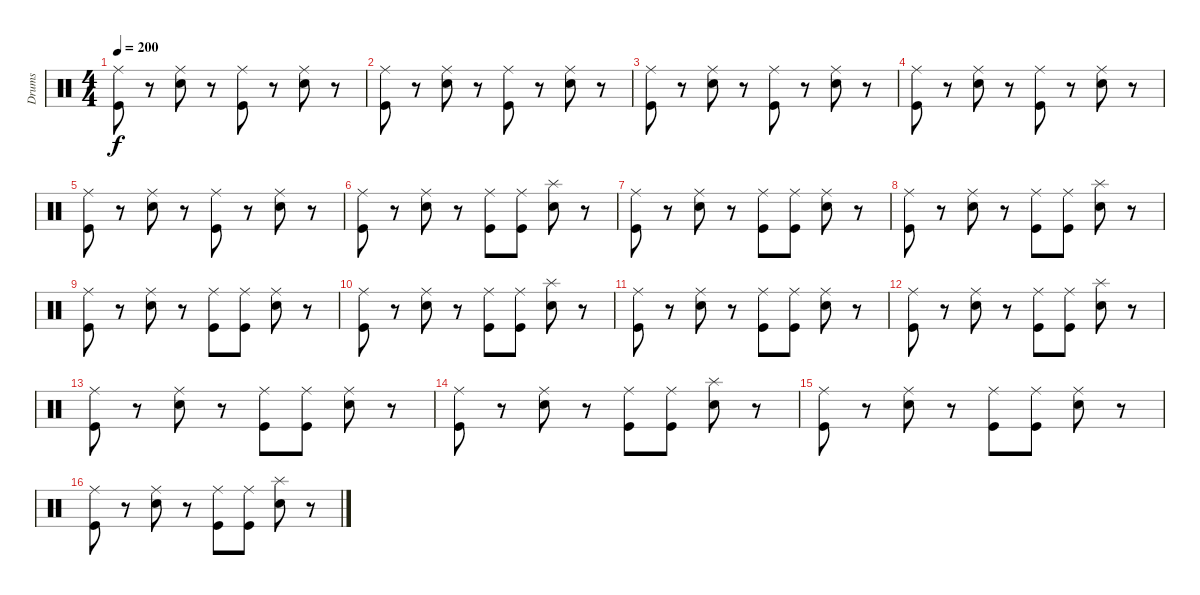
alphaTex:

\track ("Drums" "Drums") {instrument percussion}
\staff {score}
\articulation defaults
\ts (4 4)
\tempo 200
\clef neutral
\ks c
("Ride (middle)" "Kick (hit)").8{dy f} r.8 ("Ride (middle)" "Snare (hit) 2").8 r.8 ("Ride (middle)" "Kick (hit)").8 r.8 ("Ride (middle)" "Snare (hit) 2").8 r.8 |
("Ride (middle)" "Kick (hit)").8 r.8 ("Ride (middle)" "Snare (hit) 2").8 r.8 ("Ride (middle)" "Kick (hit)").8 r.8 ("Ride (middle)" "Snare (hit) 2").8 r.8 |
("Ride (middle)" "Kick (hit)").8 r.8 ("Ride (middle)" "Snare (hit) 2").8 r.8 ("Ride (middle)" "Kick (hit)").8 r.8 ("Ride (middle)" "Snare (hit) 2").8 r.8 |
("Ride (middle)" "Kick (hit)").8 r.8 ("Ride (middle)" "Snare (hit) 2").8 r.8 ("Ride (middle)" "Kick (hit)").8 r.8 ("Ride (middle)" "Snare (hit) 2").8 r.8 |
("Ride (middle)" "Kick (hit)").8 r.8 ("Ride (middle)" "Snare (hit) 2").8 r.8 ("Ride (middle)" "Kick (hit)").8 r.8 ("Ride (middle)" "Snare (hit) 2").8 r.8 |
("Ride (middle)" "Kick (hit)").8 r.8 ("Ride (middle)" "Snare (hit) 2").8 r.8 ("Ride (middle)" "Kick (hit)").8 ("Ride (middle)" "Kick (hit)").8 ("Splash (hit)" "Snare (hit) 2").8 r.8 |
("Ride (middle)" "Kick (hit)").8 r.8 ("Ride (middle)" "Snare (hit) 2").8 r.8 ("Ride (middle)" "Kick (hit)").8 ("Ride (middle)" "Kick (hit)").8 ("Ride (middle)" "Snare (hit) 2").8 r.8 |
("Ride (middle)" "Kick (hit)").8 r.8 ("Ride (middle)" "Snare (hit) 2").8 r.8 ("Ride (middle)" "Kick (hit)").8 ("Ride (middle)" "Kick (hit)").8 ("Splash (hit)" "Snare (hit) 2").8 r.8 |
("Ride (middle)" "Kick (hit)").8 r.8 ("Ride (middle)" "Snare (hit) 2").8 r.8 ("Ride (middle)" "Kick (hit)").8 ("Ride (middle)" "Kick (hit)").8 ("Ride (middle)" "Snare (hit) 2").8 r.8 |
("Ride (middle)" "Kick (hit)").8 r.8 ("Ride (middle)" "Snare (hit) 2").8 r.8 ("Ride (middle)" "Kick (hit)").8 ("Ride (middle)" "Kick (hit)").8 ("Splash (hit)" "Snare (hit) 2").8 r.8 |
("Ride (middle)" "Kick (hit)").8 r.8 ("Ride (middle)" "Snare (hit) 2").8 r.8 ("Ride (middle)" "Kick (hit)").8 ("Ride (middle)" "Kick (hit)").8 ("Ride (middle)" "Snare (hit) 2").8 r.8 |
("Ride (middle)" "Kick (hit)").8 r.8 ("Ride (middle)" "Snare (hit) 2").8 r.8 ("Ride (middle)" "Kick (hit)").8 ("Ride (middle)" "Kick (hit)").8 ("Splash (hit)" "Snare (hit) 2").8 r.8 |
("Ride (middle)" "Kick (hit)").8 r.8 ("Ride (middle)" "Snare (hit) 2").8 r.8 ("Ride (middle)" "Kick (hit)").8 ("Ride (middle)" "Kick (hit)").8 ("Ride (middle)" "Snare (hit) 2").8 r.8 |
("Ride (middle)" "Kick (hit)").8 r.8 ("Ride (middle)" "Snare (hit) 2").8 r.8 ("Ride (middle)" "Kick (hit)").8 ("Ride (middle)" "Kick (hit)").8 ("Splash (hit)" "Snare (hit) 2").8 r.8 |
("Ride (middle)" "Kick (hit)").8 r.8 ("Ride (middle)" "Snare (hit) 2").8 r.8 ("Ride (middle)" "Kick (hit)").8 ("Ride (middle)" "Kick (hit)").8 ("Ride (middle)" "Snare (hit) 2").8 r.8 |
("Ride (middle)" "Kick (hit)").8 r.8 ("Ride (middle)" "Snare (hit) 2").8 r.8 ("Ride (middle)" "Kick (hit)").8 ("Ride (middle)" "Kick (hit)").8 ("Splash (hit)" "Snare (hit) 2").8 r.8
